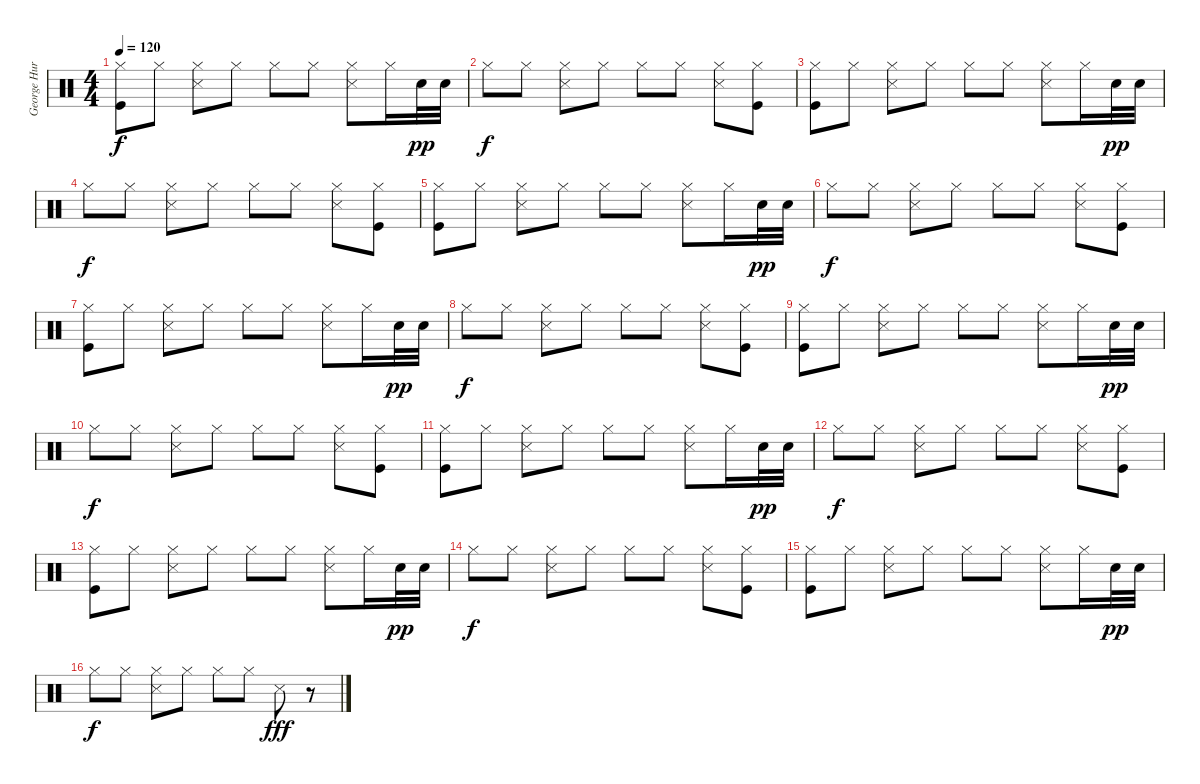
\track ("George Hurley" "George Hur") {instrument percussion}
\staff {score}
\articulation defaults
\ts (4 4)
\tempo 120
\clef neutral
\ks c
("Hi-Hat (closed)" "Kick (hit)").8{dy f} "Hi-Hat (closed)".8 ("Hi-Hat (closed)" "Snare (side stick) 3").8 "Hi-Hat (closed)".8 "Hi-Hat (closed)".8 "Hi-Hat (closed)".8 ("Hi-Hat (closed)" "Snare (side stick) 3").8 "Hi-Hat (closed)".16 "Snare (hit) 2".32{dy pp} "Snare (hit) 2".32 |
"Hi-Hat (closed)".8{dy f} "Hi-Hat (closed)".8 ("Hi-Hat (closed)" "Snare (side stick) 3").8 "Hi-Hat (closed)".8 "Hi-Hat (closed)".8 "Hi-Hat (closed)".8 ("Hi-Hat (closed)" "Snare (side stick) 3").8 ("Hi-Hat (closed)" "Kick (hit)").8 |
("Hi-Hat (closed)" "Kick (hit)").8 "Hi-Hat (closed)".8 ("Hi-Hat (closed)" "Snare (side stick) 3").8 "Hi-Hat (closed)".8 "Hi-Hat (closed)".8 "Hi-Hat (closed)".8 ("Hi-Hat (closed)" "Snare (side stick) 3").8 "Hi-Hat (closed)".16 "Snare (hit) 2".32{dy pp} "Snare (hit) 2".32 |
"Hi-Hat (closed)".8{dy f} "Hi-Hat (closed)".8 ("Hi-Hat (closed)" "Snare (side stick) 3").8 "Hi-Hat (closed)".8 "Hi-Hat (closed)".8 "Hi-Hat (closed)".8 ("Hi-Hat (closed)" "Snare (side stick) 3").8 ("Hi-Hat (closed)" "Kick (hit)").8 |
("Hi-Hat (closed)" "Kick (hit)").8 "Hi-Hat (closed)".8 ("Hi-Hat (closed)" "Snare (side stick) 3").8 "Hi-Hat (closed)".8 "Hi-Hat (closed)".8 "Hi-Hat (closed)".8 ("Hi-Hat (closed)" "Snare (side stick) 3").8 "Hi-Hat (closed)".16 "Snare (hit) 2".32{dy pp} "Snare (hit) 2".32 |
"Hi-Hat (closed)".8{dy f} "Hi-Hat (closed)".8 ("Hi-Hat (closed)" "Snare (side stick) 3").8 "Hi-Hat (closed)".8 "Hi-Hat (closed)".8 "Hi-Hat (closed)".8 ("Hi-Hat (closed)" "Snare (side stick) 3").8 ("Hi-Hat (closed)" "Kick (hit)").8 |
("Hi-Hat (closed)" "Kick (hit)").8 "Hi-Hat (closed)".8 ("Hi-Hat (closed)" "Snare (side stick) 3").8 "Hi-Hat (closed)".8 "Hi-Hat (closed)".8 "Hi-Hat (closed)".8 ("Hi-Hat (closed)" "Snare (side stick) 3").8 "Hi-Hat (closed)".16 "Snare (hit) 2".32{dy pp} "Snare (hit) 2".32 |
"Hi-Hat (closed)".8{dy f} "Hi-Hat (closed)".8 ("Hi-Hat (closed)" "Snare (side stick) 3").8 "Hi-Hat (closed)".8 "Hi-Hat (closed)".8 "Hi-Hat (closed)".8 ("Hi-Hat (closed)" "Snare (side stick) 3").8 ("Hi-Hat (closed)" "Kick (hit)").8 |
("Hi-Hat (closed)" "Kick (hit)").8 "Hi-Hat (closed)".8 ("Hi-Hat (closed)" "Snare (side stick) 3").8 "Hi-Hat (closed)".8 "Hi-Hat (closed)".8 "Hi-Hat (closed)".8 ("Hi-Hat (closed)" "Snare (side stick) 3").8 "Hi-Hat (closed)".16 "Snare (hit) 2".32{dy pp} "Snare (hit) 2".32 |
"Hi-Hat (closed)".8{dy f} "Hi-Hat (closed)".8 ("Hi-Hat (closed)" "Snare (side stick) 3").8 "Hi-Hat (closed)".8 "Hi-Hat (closed)".8 "Hi-Hat (closed)".8 ("Hi-Hat (closed)" "Snare (side stick) 3").8 ("Hi-Hat (closed)" "Kick (hit)").8 |
("Hi-Hat (closed)" "Kick (hit)").8 "Hi-Hat (closed)".8 ("Hi-Hat (closed)" "Snare (side stick) 3").8 "Hi-Hat (closed)".8 "Hi-Hat (closed)".8 "Hi-Hat (closed)".8 ("Hi-Hat (closed)" "Snare (side stick) 3").8 "Hi-Hat (closed)".16 "Snare (hit) 2".32{dy pp} "Snare (hit) 2".32 |
"Hi-Hat (closed)".8{dy f} "Hi-Hat (closed)".8 ("Hi-Hat (closed)" "Snare (side stick) 3").8 "Hi-Hat (closed)".8 "Hi-Hat (closed)".8 "Hi-Hat (closed)".8 ("Hi-Hat (closed)" "Snare (side stick) 3").8 ("Hi-Hat (closed)" "Kick (hit)").8 |
("Hi-Hat (closed)" "Kick (hit)").8 "Hi-Hat (closed)".8 ("Hi-Hat (closed)" "Snare (side stick) 3").8 "Hi-Hat (closed)".8 "Hi-Hat (closed)".8 "Hi-Hat (closed)".8 ("Hi-Hat (closed)" "Snare (side stick) 3").8 "Hi-Hat (closed)".16 "Snare (hit) 2".32{dy pp} "Snare (hit) 2".32 |
"Hi-Hat (closed)".8{dy f} "Hi-Hat (closed)".8 ("Hi-Hat (closed)" "Snare (side stick) 3").8 "Hi-Hat (closed)".8 "Hi-Hat (closed)".8 "Hi-Hat (closed)".8 ("Hi-Hat (closed)" "Snare (side stick) 3").8 ("Hi-Hat (closed)" "Kick (hit)").8 |
("Hi-Hat (closed)" "Kick (hit)").8 "Hi-Hat (closed)".8 ("Hi-Hat (closed)" "Snare (side stick) 3").8 "Hi-Hat (closed)".8 "Hi-Hat (closed)".8 "Hi-Hat (closed)".8 ("Hi-Hat (closed)" "Snare (side stick) 3").8 "Hi-Hat (closed)".16 "Snare (hit) 2".32{dy pp} "Snare (hit) 2".32 |
"Hi-Hat (closed)".8{dy f} "Hi-Hat (closed)".8 ("Hi-Hat (closed)" "Snare (side stick) 3").8 "Hi-Hat (closed)".8 "Hi-Hat (closed)".8 "Hi-Hat (closed)".8 "Snare (side stick) 3".8{dy fff} r.8
